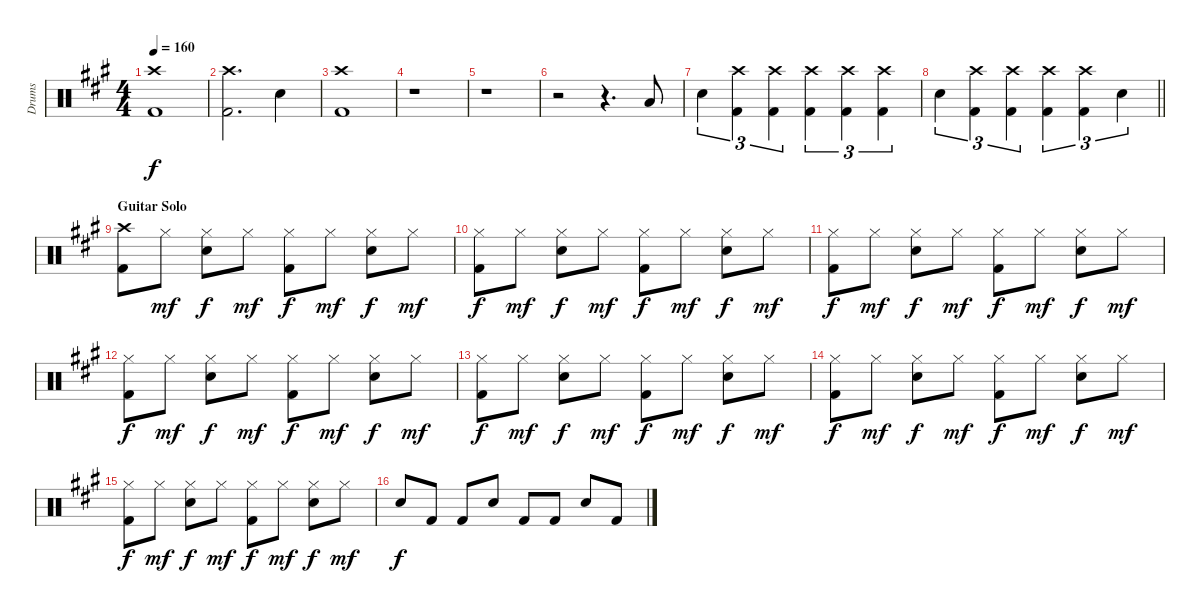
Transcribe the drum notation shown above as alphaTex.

\track ("Drums" "Drums") {instrument percussion}
\staff {score}
\articulation defaults
\ts (4 4)
\tempo 160
\clef neutral
\ks a
("Crash high (hit)" "Kick (hit) 2").1{dy f} |
("Crash high (hit)" "Kick (hit) 2").2{d} "Electric Snare (hit)".4 |
("Crash high (hit)" "Kick (hit) 2").1 |
r.1 |
r.1 |
r.2 r.4{d} "Low Tom (hit)".8 |
"Electric Snare (hit)".4{tu (3 2)} ("Crash high (hit)" "Kick (hit) 2").4{tu (3 2)} ("Crash high (hit)" "Kick (hit) 2").4{tu (3 2)} ("Crash high (hit)" "Kick (hit) 2").4{tu (3 2)} ("Crash high (hit)" "Kick (hit) 2").4{tu (3 2)} ("Crash high (hit)" "Kick (hit) 2").4{tu (3 2)} |
\barLineRight lightlight "Electric Snare (hit)".4{tu (3 2)}
("Crash high (hit)" "Kick (hit) 2").4{tu (3 2)} ("Crash high (hit)" "Kick (hit) 2").4{tu (3 2)} ("Crash high (hit)" "Kick (hit) 2").4{tu (3 2)} ("Crash high (hit)" "Kick (hit) 2").4{tu (3 2)} "Electric Snare (hit)".4{tu (3 2)} |
\section ("" "Guitar Solo")
("Crash high (hit)" "Kick (hit) 2").8 "Hi-Hat (closed)".8{dy mf} ("Hi-Hat (closed)" "Electric Snare (hit)").8{dy f} "Hi-Hat (closed)".8{dy mf} ("Hi-Hat (closed)" "Kick (hit) 2").8{dy f} "Hi-Hat (closed)".8{dy mf} ("Hi-Hat (closed)" "Electric Snare (hit)").8{dy f} "Hi-Hat (closed)".8{dy mf} |
("Hi-Hat (closed)" "Kick (hit) 2").8{dy f} "Hi-Hat (closed)".8{dy mf} ("Hi-Hat (closed)" "Electric Snare (hit)").8{dy f} "Hi-Hat (closed)".8{dy mf} ("Hi-Hat (closed)" "Kick (hit) 2").8{dy f} "Hi-Hat (closed)".8{dy mf} ("Hi-Hat (closed)" "Electric Snare (hit)").8{dy f} "Hi-Hat (closed)".8{dy mf} |
("Hi-Hat (closed)" "Kick (hit) 2").8{dy f} "Hi-Hat (closed)".8{dy mf} ("Hi-Hat (closed)" "Electric Snare (hit)").8{dy f} "Hi-Hat (closed)".8{dy mf} ("Hi-Hat (closed)" "Kick (hit) 2").8{dy f} "Hi-Hat (closed)".8{dy mf} ("Hi-Hat (closed)" "Electric Snare (hit)").8{dy f} "Hi-Hat (closed)".8{dy mf} |
("Hi-Hat (closed)" "Kick (hit) 2").8{dy f} "Hi-Hat (closed)".8{dy mf} ("Hi-Hat (closed)" "Electric Snare (hit)").8{dy f} "Hi-Hat (closed)".8{dy mf} ("Hi-Hat (closed)" "Kick (hit) 2").8{dy f} "Hi-Hat (closed)".8{dy mf} ("Hi-Hat (closed)" "Electric Snare (hit)").8{dy f} "Hi-Hat (closed)".8{dy mf} |
("Hi-Hat (closed)" "Kick (hit) 2").8{dy f} "Hi-Hat (closed)".8{dy mf} ("Hi-Hat (closed)" "Electric Snare (hit)").8{dy f} "Hi-Hat (closed)".8{dy mf} ("Hi-Hat (closed)" "Kick (hit) 2").8{dy f} "Hi-Hat (closed)".8{dy mf} ("Hi-Hat (closed)" "Electric Snare (hit)").8{dy f} "Hi-Hat (closed)".8{dy mf} |
("Hi-Hat (closed)" "Kick (hit) 2").8{dy f} "Hi-Hat (closed)".8{dy mf} ("Hi-Hat (closed)" "Electric Snare (hit)").8{dy f} "Hi-Hat (closed)".8{dy mf} ("Hi-Hat (closed)" "Kick (hit) 2").8{dy f} "Hi-Hat (closed)".8{dy mf} ("Hi-Hat (closed)" "Electric Snare (hit)").8{dy f} "Hi-Hat (closed)".8{dy mf} |
("Hi-Hat (closed)" "Kick (hit) 2").8{dy f} "Hi-Hat (closed)".8{dy mf} ("Hi-Hat (closed)" "Electric Snare (hit)").8{dy f} "Hi-Hat (closed)".8{dy mf} ("Hi-Hat (closed)" "Kick (hit) 2").8{dy f} "Hi-Hat (closed)".8{dy mf} ("Hi-Hat (closed)" "Electric Snare (hit)").8{dy f} "Hi-Hat (closed)".8{dy mf} |
"Electric Snare (hit)".8{dy f} "Kick (hit) 2".8 "Kick (hit) 2".8 "Electric Snare (hit)".8 "Kick (hit) 2".8 "Kick (hit) 2".8 "Electric Snare (hit)".8 "Kick (hit) 2".8
